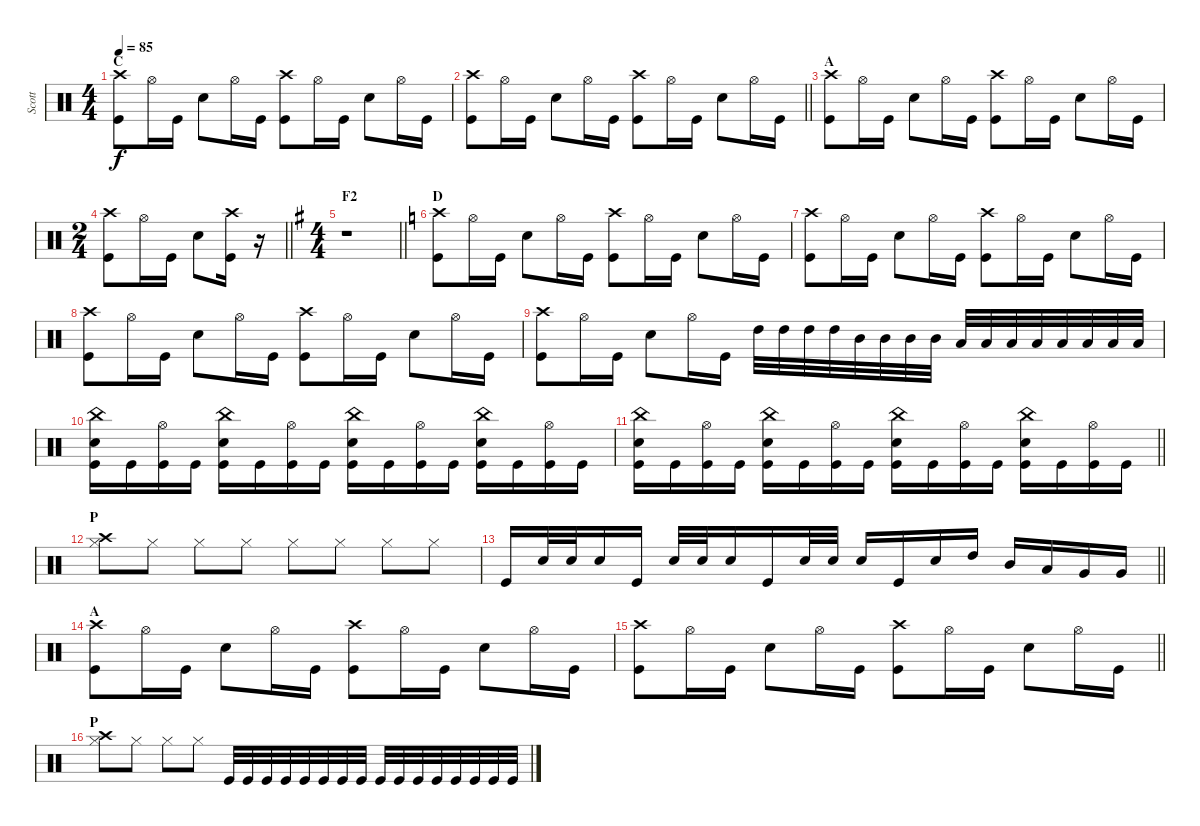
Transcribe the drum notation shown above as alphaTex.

\track ("Scott" "Scott") {instrument percussion}
\staff {score}
\articulation defaults
\ts (4 4)
\section ("" "C")
\tempo 85
\clef neutral
\ks c
("Kick (hit)" "Crash high (hit)").8{dy f} "Hi-Hat (open)".16 "Kick (hit)".16 "Snare (hit) 2".8 "Hi-Hat (open)".16 "Kick (hit)".16 ("Kick (hit)" "Crash high (hit)").8 "Hi-Hat (open)".16 "Kick (hit)".16 "Snare (hit) 2".8 "Hi-Hat (open)".16 "Kick (hit)".16 |
\barLineRight lightlight
("Kick (hit)" "Crash high (hit)").8 "Hi-Hat (open)".16 "Kick (hit)".16 "Snare (hit) 2".8 "Hi-Hat (open)".16 "Kick (hit)".16 ("Kick (hit)" "Crash high (hit)").8 "Hi-Hat (open)".16 "Kick (hit)".16 "Snare (hit) 2".8 "Hi-Hat (open)".16 "Kick (hit)".16 |
\section ("" "A")
("Kick (hit)" "Crash high (hit)").8 "Hi-Hat (open)".16 "Kick (hit)".16 "Snare (hit) 2".8 "Hi-Hat (open)".16 "Kick (hit)".16 ("Kick (hit)" "Crash high (hit)").8 "Hi-Hat (open)".16 "Kick (hit)".16 "Snare (hit) 2".8 "Hi-Hat (open)".16 "Kick (hit)".16 |
\ts (2 4)
\barLineRight lightlight
("Kick (hit)" "Crash high (hit)").8 "Hi-Hat (open)".16 "Kick (hit)".16 "Snare (hit) 2".8 ("Kick (hit)" "Crash high (hit)").16 r.16 |
\ts (4 4)
\section ("" "F2")
\barLineRight lightlight
\ks g
r.1 |
\section ("" "D")
\ks c
("Kick (hit)" "Crash high (hit)").8 "Hi-Hat (open)".16 "Kick (hit)".16 "Snare (hit) 2".8 "Hi-Hat (open)".16 "Kick (hit)".16 ("Kick (hit)" "Crash high (hit)").8 "Hi-Hat (open)".16 "Kick (hit)".16 "Snare (hit) 2".8 "Hi-Hat (open)".16 "Kick (hit)".16 |
("Kick (hit)" "Crash high (hit)").8 "Hi-Hat (open)".16 "Kick (hit)".16 "Snare (hit) 2".8 "Hi-Hat (open)".16 "Kick (hit)".16 ("Kick (hit)" "Crash high (hit)").8 "Hi-Hat (open)".16 "Kick (hit)".16 "Snare (hit) 2".8 "Hi-Hat (open)".16 "Kick (hit)".16 |
("Kick (hit)" "Crash high (hit)").8 "Hi-Hat (open)".16 "Kick (hit)".16 "Snare (hit) 2".8 "Hi-Hat (open)".16 "Kick (hit)".16 ("Kick (hit)" "Crash high (hit)").8 "Hi-Hat (open)".16 "Kick (hit)".16 "Snare (hit) 2".8 "Hi-Hat (open)".16 "Kick (hit)".16 |
("Kick (hit)" "Crash high (hit)").8 "Hi-Hat (open)".16 "Kick (hit)".16 "Snare (hit) 2".8 "Hi-Hat (open)".16 "Kick (hit)".16 "High Tom (hit)".32 "High Tom (hit)".32 "High Tom (hit)".32 "High Tom (hit)".32 "Mid Tom (hit)".32 "Mid Tom (hit)".32 "Mid Tom (hit)".32 "Mid Tom (hit)".32 "Low Tom (hit)".32 "Low Tom (hit)".32 "Low Tom (hit)".32 "Low Tom (hit)".32 "Low Floor Tom (hit)".32 "Low Floor Tom (hit)".32 "Low Floor Tom (hit)".32 "Low Floor Tom (hit)".32 |
("Snare (hit) 2" "Kick (hit)" "China (hit)").16 "Kick (hit)".16 ("Kick (hit)" "Hi-Hat (open)").16 "Kick (hit)".16 ("Snare (hit) 2" "Kick (hit)" "China (hit)").16 "Kick (hit)".16 ("Kick (hit)" "Hi-Hat (open)").16 "Kick (hit)".16 ("Snare (hit) 2" "Kick (hit)" "China (hit)").16 "Kick (hit)".16 ("Kick (hit)" "Hi-Hat (open)").16 "Kick (hit)".16 ("Snare (hit) 2" "Kick (hit)" "China (hit)").16 "Kick (hit)".16 ("Kick (hit)" "Hi-Hat (open)").16 "Kick (hit)".16 |
\barLineRight lightlight
("Snare (hit) 2" "Kick (hit)" "China (hit)").16 "Kick (hit)".16 ("Kick (hit)" "Hi-Hat (open)").16 "Kick (hit)".16 ("Snare (hit) 2" "Kick (hit)" "China (hit)").16 "Kick (hit)".16 ("Kick (hit)" "Hi-Hat (open)").16 "Kick (hit)".16 ("Snare (hit) 2" "Kick (hit)" "China (hit)").16 "Kick (hit)".16 ("Kick (hit)" "Hi-Hat (open)").16 "Kick (hit)".16 ("Snare (hit) 2" "Kick (hit)" "China (hit)").16 "Kick (hit)".16 ("Kick (hit)" "Hi-Hat (open)").16 "Kick (hit)".16 |
\section ("" "P")
("Hi-Hat (closed)" "Crash high (hit)").8 "Hi-Hat (closed)".8 "Hi-Hat (closed)".8 "Hi-Hat (closed)".8 "Hi-Hat (closed)".8 "Hi-Hat (closed)".8 "Hi-Hat (closed)".8 "Hi-Hat (closed)".8 |
\barLineRight lightlight "Kick (hit)".16 "Snare (hit) 2".32 "Snare (hit) 2".32 "Snare (hit) 2".16 "Kick (hit)".16 "Snare (hit) 2".32 "Snare (hit) 2".32 "Snare (hit) 2".16 "Kick (hit)".16 "Snare (hit) 2".32 "Snare (hit) 2".32 "Snare (hit) 2".16 "Kick (hit)".16 "Snare (hit) 2".16 "High Tom (hit)".16 "Mid Tom (hit)".16 "Low Tom (hit)".16 "Very Low Tom (hit)".16 "Very Low Tom (hit)".16
|
\section ("" "A")
("Kick (hit)" "Crash high (hit)").8 "Hi-Hat (open)".16 "Kick (hit)".16 "Snare (hit) 2".8 "Hi-Hat (open)".16 "Kick (hit)".16 ("Kick (hit)" "Crash high (hit)").8 "Hi-Hat (open)".16 "Kick (hit)".16 "Snare (hit) 2".8 "Hi-Hat (open)".16 "Kick (hit)".16 |
\barLineRight lightlight
("Kick (hit)" "Crash high (hit)").8 "Hi-Hat (open)".16 "Kick (hit)".16 "Snare (hit) 2".8 "Hi-Hat (open)".16 "Kick (hit)".16 ("Kick (hit)" "Crash high (hit)").8 "Hi-Hat (open)".16 "Kick (hit)".16 "Snare (hit) 2".8 "Hi-Hat (open)".16 "Kick (hit)".16 |
\section ("" "P")
("Hi-Hat (closed)" "Crash high (hit)").8 "Hi-Hat (closed)".8 "Hi-Hat (closed)".8 "Hi-Hat (closed)".8 "Kick (hit)".32 "Kick (hit)".32 "Kick (hit)".32 "Kick (hit)".32 "Kick (hit)".32 "Kick (hit)".32 "Kick (hit)".32 "Kick (hit)".32 "Kick (hit)".32 "Kick (hit)".32 "Kick (hit)".32 "Kick (hit)".32 "Kick (hit)".32 "Kick (hit)".32 "Kick (hit)".32 "Kick (hit)".32
